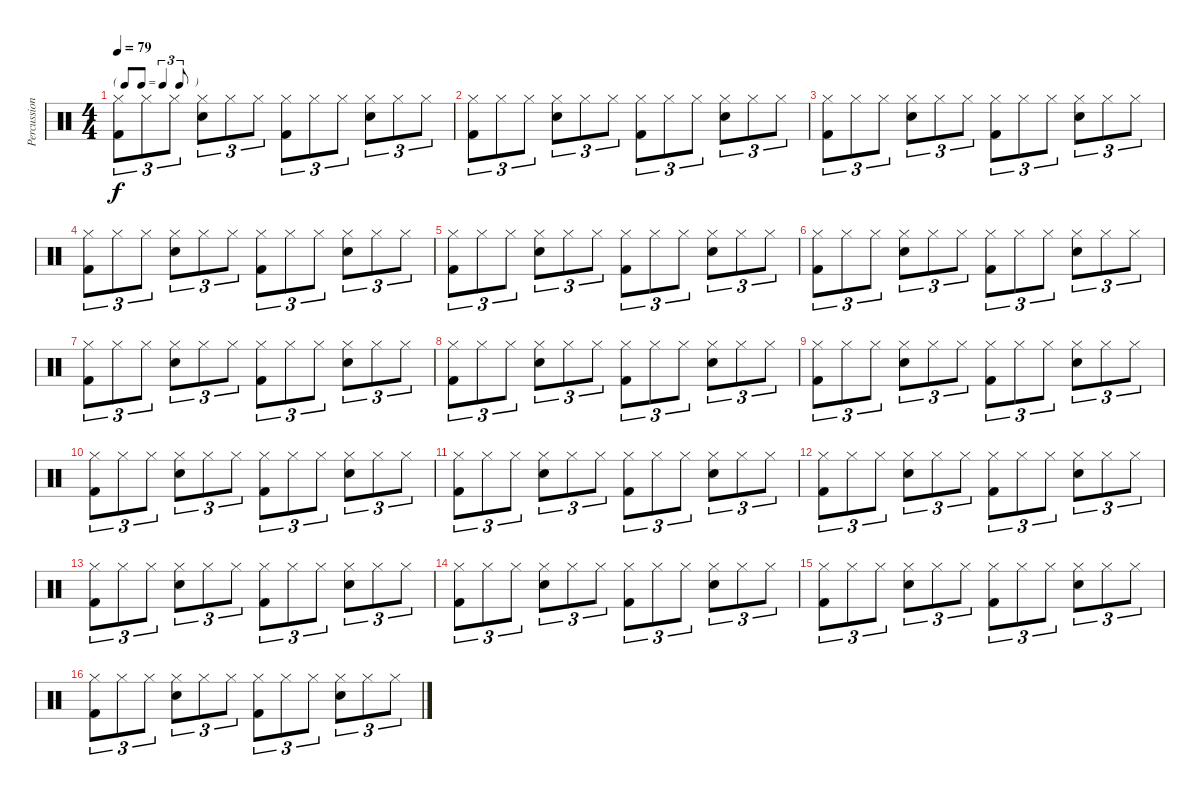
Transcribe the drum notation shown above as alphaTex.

\track ("Percussion" "Percussion") {instrument percussion}
\staff {score}
\articulation defaults
\ts (4 4)
\tf triplet8th
\tempo 79
\clef neutral
\ks c
("Hi-Hat (closed)" "Kick (hit) 2").8{tu (3 2) dy f} "Hi-Hat (closed)".8{tu (3 2)} "Hi-Hat (closed)".8{tu (3 2)} ("Hi-Hat (closed)" "Snare (hit) 2").8{tu (3 2)} "Hi-Hat (closed)".8{tu (3 2)} "Hi-Hat (closed)".8{tu (3 2)} ("Hi-Hat (closed)" "Kick (hit) 2").8{tu (3 2)} "Hi-Hat (closed)".8{tu (3 2)} "Hi-Hat (closed)".8{tu (3 2)} ("Hi-Hat (closed)" "Snare (hit) 2").8{tu (3 2)} "Hi-Hat (closed)".8{tu (3 2)} "Hi-Hat (closed)".8{tu (3 2)} |
("Hi-Hat (closed)" "Kick (hit) 2").8{tu (3 2)} "Hi-Hat (closed)".8{tu (3 2)} "Hi-Hat (closed)".8{tu (3 2)} ("Hi-Hat (closed)" "Snare (hit) 2").8{tu (3 2)} "Hi-Hat (closed)".8{tu (3 2)} "Hi-Hat (closed)".8{tu (3 2)} ("Hi-Hat (closed)" "Kick (hit) 2").8{tu (3 2)} "Hi-Hat (closed)".8{tu (3 2)} "Hi-Hat (closed)".8{tu (3 2)} ("Hi-Hat (closed)" "Snare (hit) 2").8{tu (3 2)} "Hi-Hat (closed)".8{tu (3 2)} "Hi-Hat (closed)".8{tu (3 2)} |
("Hi-Hat (closed)" "Kick (hit) 2").8{tu (3 2)} "Hi-Hat (closed)".8{tu (3 2)} "Hi-Hat (closed)".8{tu (3 2)} ("Hi-Hat (closed)" "Snare (hit) 2").8{tu (3 2)} "Hi-Hat (closed)".8{tu (3 2)} "Hi-Hat (closed)".8{tu (3 2)} ("Hi-Hat (closed)" "Kick (hit) 2").8{tu (3 2)} "Hi-Hat (closed)".8{tu (3 2)} "Hi-Hat (closed)".8{tu (3 2)} ("Hi-Hat (closed)" "Snare (hit) 2").8{tu (3 2)} "Hi-Hat (closed)".8{tu (3 2)} "Hi-Hat (closed)".8{tu (3 2)} |
("Hi-Hat (closed)" "Kick (hit) 2").8{tu (3 2)} "Hi-Hat (closed)".8{tu (3 2)} "Hi-Hat (closed)".8{tu (3 2)} ("Hi-Hat (closed)" "Snare (hit) 2").8{tu (3 2)} "Hi-Hat (closed)".8{tu (3 2)} "Hi-Hat (closed)".8{tu (3 2)} ("Hi-Hat (closed)" "Kick (hit) 2").8{tu (3 2)} "Hi-Hat (closed)".8{tu (3 2)} "Hi-Hat (closed)".8{tu (3 2)} ("Hi-Hat (closed)" "Snare (hit) 2").8{tu (3 2)} "Hi-Hat (closed)".8{tu (3 2)} "Hi-Hat (closed)".8{tu (3 2)} |
("Hi-Hat (closed)" "Kick (hit) 2").8{tu (3 2)} "Hi-Hat (closed)".8{tu (3 2)} "Hi-Hat (closed)".8{tu (3 2)} ("Hi-Hat (closed)" "Snare (hit) 2").8{tu (3 2)} "Hi-Hat (closed)".8{tu (3 2)} "Hi-Hat (closed)".8{tu (3 2)} ("Hi-Hat (closed)" "Kick (hit) 2").8{tu (3 2)} "Hi-Hat (closed)".8{tu (3 2)} "Hi-Hat (closed)".8{tu (3 2)} ("Hi-Hat (closed)" "Snare (hit) 2").8{tu (3 2)} "Hi-Hat (closed)".8{tu (3 2)} "Hi-Hat (closed)".8{tu (3 2)} |
("Hi-Hat (closed)" "Kick (hit) 2").8{tu (3 2)} "Hi-Hat (closed)".8{tu (3 2)} "Hi-Hat (closed)".8{tu (3 2)} ("Hi-Hat (closed)" "Snare (hit) 2").8{tu (3 2)} "Hi-Hat (closed)".8{tu (3 2)} "Hi-Hat (closed)".8{tu (3 2)} ("Hi-Hat (closed)" "Kick (hit) 2").8{tu (3 2)} "Hi-Hat (closed)".8{tu (3 2)} "Hi-Hat (closed)".8{tu (3 2)} ("Hi-Hat (closed)" "Snare (hit) 2").8{tu (3 2)} "Hi-Hat (closed)".8{tu (3 2)} "Hi-Hat (closed)".8{tu (3 2)} |
("Hi-Hat (closed)" "Kick (hit) 2").8{tu (3 2)} "Hi-Hat (closed)".8{tu (3 2)} "Hi-Hat (closed)".8{tu (3 2)} ("Hi-Hat (closed)" "Snare (hit) 2").8{tu (3 2)} "Hi-Hat (closed)".8{tu (3 2)} "Hi-Hat (closed)".8{tu (3 2)} ("Hi-Hat (closed)" "Kick (hit) 2").8{tu (3 2)} "Hi-Hat (closed)".8{tu (3 2)} "Hi-Hat (closed)".8{tu (3 2)} ("Hi-Hat (closed)" "Snare (hit) 2").8{tu (3 2)} "Hi-Hat (closed)".8{tu (3 2)} "Hi-Hat (closed)".8{tu (3 2)} |
("Hi-Hat (closed)" "Kick (hit) 2").8{tu (3 2)} "Hi-Hat (closed)".8{tu (3 2)} "Hi-Hat (closed)".8{tu (3 2)} ("Hi-Hat (closed)" "Snare (hit) 2").8{tu (3 2)} "Hi-Hat (closed)".8{tu (3 2)} "Hi-Hat (closed)".8{tu (3 2)} ("Hi-Hat (closed)" "Kick (hit) 2").8{tu (3 2)} "Hi-Hat (closed)".8{tu (3 2)} "Hi-Hat (closed)".8{tu (3 2)} ("Hi-Hat (closed)" "Snare (hit) 2").8{tu (3 2)} "Hi-Hat (closed)".8{tu (3 2)} "Hi-Hat (closed)".8{tu (3 2)} |
("Hi-Hat (closed)" "Kick (hit) 2").8{tu (3 2)} "Hi-Hat (closed)".8{tu (3 2)} "Hi-Hat (closed)".8{tu (3 2)} ("Hi-Hat (closed)" "Snare (hit) 2").8{tu (3 2)} "Hi-Hat (closed)".8{tu (3 2)} "Hi-Hat (closed)".8{tu (3 2)} ("Hi-Hat (closed)" "Kick (hit) 2").8{tu (3 2)} "Hi-Hat (closed)".8{tu (3 2)} "Hi-Hat (closed)".8{tu (3 2)} ("Hi-Hat (closed)" "Snare (hit) 2").8{tu (3 2)} "Hi-Hat (closed)".8{tu (3 2)} "Hi-Hat (closed)".8{tu (3 2)} |
("Hi-Hat (closed)" "Kick (hit) 2").8{tu (3 2)} "Hi-Hat (closed)".8{tu (3 2)} "Hi-Hat (closed)".8{tu (3 2)} ("Hi-Hat (closed)" "Snare (hit) 2").8{tu (3 2)} "Hi-Hat (closed)".8{tu (3 2)} "Hi-Hat (closed)".8{tu (3 2)} ("Hi-Hat (closed)" "Kick (hit) 2").8{tu (3 2)} "Hi-Hat (closed)".8{tu (3 2)} "Hi-Hat (closed)".8{tu (3 2)} ("Hi-Hat (closed)" "Snare (hit) 2").8{tu (3 2)} "Hi-Hat (closed)".8{tu (3 2)} "Hi-Hat (closed)".8{tu (3 2)} |
("Hi-Hat (closed)" "Kick (hit) 2").8{tu (3 2)} "Hi-Hat (closed)".8{tu (3 2)} "Hi-Hat (closed)".8{tu (3 2)} ("Hi-Hat (closed)" "Snare (hit) 2").8{tu (3 2)} "Hi-Hat (closed)".8{tu (3 2)} "Hi-Hat (closed)".8{tu (3 2)} ("Hi-Hat (closed)" "Kick (hit) 2").8{tu (3 2)} "Hi-Hat (closed)".8{tu (3 2)} "Hi-Hat (closed)".8{tu (3 2)} ("Hi-Hat (closed)" "Snare (hit) 2").8{tu (3 2)} "Hi-Hat (closed)".8{tu (3 2)} "Hi-Hat (closed)".8{tu (3 2)} |
("Hi-Hat (closed)" "Kick (hit) 2").8{tu (3 2)} "Hi-Hat (closed)".8{tu (3 2)} "Hi-Hat (closed)".8{tu (3 2)} ("Hi-Hat (closed)" "Snare (hit) 2").8{tu (3 2)} "Hi-Hat (closed)".8{tu (3 2)} "Hi-Hat (closed)".8{tu (3 2)} ("Hi-Hat (closed)" "Kick (hit) 2").8{tu (3 2)} "Hi-Hat (closed)".8{tu (3 2)} "Hi-Hat (closed)".8{tu (3 2)} ("Hi-Hat (closed)" "Snare (hit) 2").8{tu (3 2)} "Hi-Hat (closed)".8{tu (3 2)} "Hi-Hat (closed)".8{tu (3 2)} |
("Hi-Hat (closed)" "Kick (hit) 2").8{tu (3 2)} "Hi-Hat (closed)".8{tu (3 2)} "Hi-Hat (closed)".8{tu (3 2)} ("Hi-Hat (closed)" "Snare (hit) 2").8{tu (3 2)} "Hi-Hat (closed)".8{tu (3 2)} "Hi-Hat (closed)".8{tu (3 2)} ("Hi-Hat (closed)" "Kick (hit) 2").8{tu (3 2)} "Hi-Hat (closed)".8{tu (3 2)} "Hi-Hat (closed)".8{tu (3 2)} ("Hi-Hat (closed)" "Snare (hit) 2").8{tu (3 2)} "Hi-Hat (closed)".8{tu (3 2)} "Hi-Hat (closed)".8{tu (3 2)} |
("Hi-Hat (closed)" "Kick (hit) 2").8{tu (3 2)} "Hi-Hat (closed)".8{tu (3 2)} "Hi-Hat (closed)".8{tu (3 2)} ("Hi-Hat (closed)" "Snare (hit) 2").8{tu (3 2)} "Hi-Hat (closed)".8{tu (3 2)} "Hi-Hat (closed)".8{tu (3 2)} ("Hi-Hat (closed)" "Kick (hit) 2").8{tu (3 2)} "Hi-Hat (closed)".8{tu (3 2)} "Hi-Hat (closed)".8{tu (3 2)} ("Hi-Hat (closed)" "Snare (hit) 2").8{tu (3 2)} "Hi-Hat (closed)".8{tu (3 2)} "Hi-Hat (closed)".8{tu (3 2)} |
("Hi-Hat (closed)" "Kick (hit) 2").8{tu (3 2)} "Hi-Hat (closed)".8{tu (3 2)} "Hi-Hat (closed)".8{tu (3 2)} ("Hi-Hat (closed)" "Snare (hit) 2").8{tu (3 2)} "Hi-Hat (closed)".8{tu (3 2)} "Hi-Hat (closed)".8{tu (3 2)} ("Hi-Hat (closed)" "Kick (hit) 2").8{tu (3 2)} "Hi-Hat (closed)".8{tu (3 2)} "Hi-Hat (closed)".8{tu (3 2)} ("Hi-Hat (closed)" "Snare (hit) 2").8{tu (3 2)} "Hi-Hat (closed)".8{tu (3 2)} "Hi-Hat (closed)".8{tu (3 2)} |
("Hi-Hat (closed)" "Kick (hit) 2").8{tu (3 2)} "Hi-Hat (closed)".8{tu (3 2)} "Hi-Hat (closed)".8{tu (3 2)} ("Hi-Hat (closed)" "Snare (hit) 2").8{tu (3 2)} "Hi-Hat (closed)".8{tu (3 2)} "Hi-Hat (closed)".8{tu (3 2)} ("Hi-Hat (closed)" "Kick (hit) 2").8{tu (3 2)} "Hi-Hat (closed)".8{tu (3 2)} "Hi-Hat (closed)".8{tu (3 2)} ("Hi-Hat (closed)" "Snare (hit) 2").8{tu (3 2)} "Hi-Hat (closed)".8{tu (3 2)} "Hi-Hat (closed)".8{tu (3 2)}
